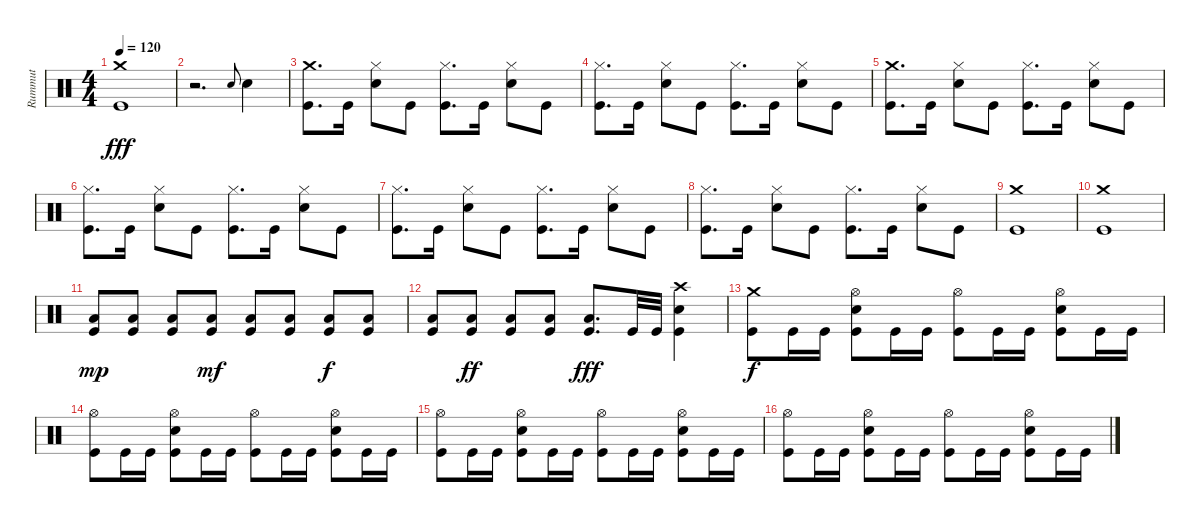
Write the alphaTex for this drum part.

\track ("Rummut" "Rummut") {instrument percussion}
\staff {score}
\articulation defaults
\ts (4 4)
\tempo 120
\clef neutral
\ks c
("Crash medium (hit)" "Kick (hit)").1{dy fff} |
r.2{d} "Snare (hit) 2".8{gr onbeat} "Snare (hit) 2".4 |
("Crash medium (hit)" "Kick (hit)").8{d} "Kick (hit)".16 ("Hi-Hat (closed)" "Snare (hit) 2").8 "Kick (hit)".8 ("Hi-Hat (closed)" "Kick (hit)").8{d} "Kick (hit)".16 ("Hi-Hat (closed)" "Snare (hit) 2").8 "Kick (hit)".8 |
("Hi-Hat (closed)" "Kick (hit)").8{d} "Kick (hit)".16 ("Hi-Hat (closed)" "Snare (hit) 2").8 "Kick (hit)".8 ("Hi-Hat (closed)" "Kick (hit)").8{d} "Kick (hit)".16 ("Hi-Hat (closed)" "Snare (hit) 2").8 "Kick (hit)".8 |
("Crash medium (hit)" "Kick (hit)").8{d} "Kick (hit)".16 ("Hi-Hat (closed)" "Snare (hit) 2").8 "Kick (hit)".8 ("Hi-Hat (closed)" "Kick (hit)").8{d} "Kick (hit)".16 ("Hi-Hat (closed)" "Snare (hit) 2").8 "Kick (hit)".8 |
("Hi-Hat (closed)" "Kick (hit)").8{d} "Kick (hit)".16 ("Hi-Hat (closed)" "Snare (hit) 2").8 "Kick (hit)".8 ("Hi-Hat (closed)" "Kick (hit)").8{d} "Kick (hit)".16 ("Hi-Hat (closed)" "Snare (hit) 2").8 "Kick (hit)".8 |
("Hi-Hat (closed)" "Kick (hit)").8{d} "Kick (hit)".16 ("Hi-Hat (closed)" "Snare (hit) 2").8 "Kick (hit)".8 ("Hi-Hat (closed)" "Kick (hit)").8{d} "Kick (hit)".16 ("Hi-Hat (closed)" "Snare (hit) 2").8 "Kick (hit)".8 |
("Hi-Hat (closed)" "Kick (hit)").8{d} "Kick (hit)".16 ("Hi-Hat (closed)" "Snare (hit) 2").8 "Kick (hit)".8 ("Hi-Hat (closed)" "Kick (hit)").8{d} "Kick (hit)".16 ("Hi-Hat (closed)" "Snare (hit) 2").8 "Kick (hit)".8 |
("Crash medium (hit)" "Kick (hit)").1 |
("Crash medium (hit)" "Kick (hit)").1 |
("Low Tom (hit)" "Kick (hit)").8{dy mp} ("Low Tom (hit)" "Kick (hit)").8 ("Low Tom (hit)" "Kick (hit)").8 ("Low Tom (hit)" "Kick (hit)").8{dy mf} ("Low Tom (hit)" "Kick (hit)").8 ("Low Tom (hit)" "Kick (hit)").8 ("Low Tom (hit)" "Kick (hit)").8{dy f} ("Low Tom (hit)" "Kick (hit)").8 |
("Low Tom (hit)" "Kick (hit)").8 ("Low Tom (hit)" "Kick (hit)").8{dy ff} ("Low Tom (hit)" "Kick (hit)").8 ("Low Tom (hit)" "Kick (hit)").8 ("Low Tom (hit)" "Kick (hit)").8{d dy fff} "Kick (hit)".32 "Kick (hit)".32 ("Crash high (hit)" "Snare (hit) 2" "Kick (hit)").4 |
("Crash medium (hit)" "Kick (hit)").8{dy f} "Kick (hit)".16 "Kick (hit)".16 ("Hi-Hat (open)" "Snare (hit) 2" "Kick (hit)").8 "Kick (hit)".16 "Kick (hit)".16 ("Hi-Hat (open)" "Kick (hit)").8 "Kick (hit)".16 "Kick (hit)".16 ("Hi-Hat (open)" "Snare (hit) 2" "Kick (hit)").8 "Kick (hit)".16 "Kick (hit)".16 |
("Hi-Hat (open)" "Kick (hit)").8 "Kick (hit)".16 "Kick (hit)".16 ("Hi-Hat (open)" "Snare (hit) 2" "Kick (hit)").8 "Kick (hit)".16 "Kick (hit)".16 ("Hi-Hat (open)" "Kick (hit)").8 "Kick (hit)".16 "Kick (hit)".16 ("Hi-Hat (open)" "Snare (hit) 2" "Kick (hit)").8 "Kick (hit)".16 "Kick (hit)".16 |
("Hi-Hat (open)" "Kick (hit)").8 "Kick (hit)".16 "Kick (hit)".16 ("Hi-Hat (open)" "Snare (hit) 2" "Kick (hit)").8 "Kick (hit)".16 "Kick (hit)".16 ("Hi-Hat (open)" "Kick (hit)").8 "Kick (hit)".16 "Kick (hit)".16 ("Hi-Hat (open)" "Snare (hit) 2" "Kick (hit)").8 "Kick (hit)".16 "Kick (hit)".16 |
("Hi-Hat (open)" "Kick (hit)").8 "Kick (hit)".16 "Kick (hit)".16 ("Hi-Hat (open)" "Snare (hit) 2" "Kick (hit)").8 "Kick (hit)".16 "Kick (hit)".16 ("Hi-Hat (open)" "Kick (hit)").8 "Kick (hit)".16 "Kick (hit)".16 ("Hi-Hat (open)" "Snare (hit) 2" "Kick (hit)").8 "Kick (hit)".16 "Kick (hit)".16
